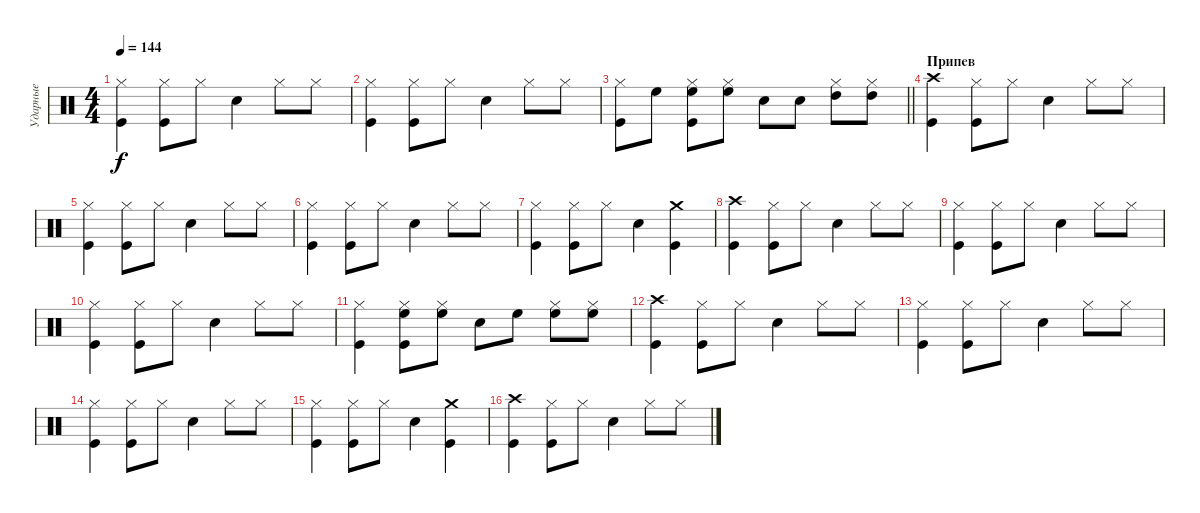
\track ("Ударные" "Ударные") {instrument percussion}
\staff {score}
\articulation defaults
\ts (4 4)
\tempo 144
\clef neutral
\ks c
("Hi-Hat (closed)" "Kick (hit)").4{dy f} ("Hi-Hat (closed)" "Kick (hit)").8 "Hi-Hat (closed)".8 "Snare (hit) 2".4 "Hi-Hat (closed)".8 "Hi-Hat (closed)".8 |
("Hi-Hat (closed)" "Kick (hit)").4 ("Hi-Hat (closed)" "Kick (hit)").8 "Hi-Hat (closed)".8 "Snare (hit) 2".4 "Hi-Hat (closed)".8 "Hi-Hat (closed)".8 |
\barLineRight lightlight
("Hi-Hat (closed)" "Kick (hit)").8 "High Floor Tom (hit)".8 ("Hi-Hat (closed)" "High Floor Tom (hit)" "Kick (hit)").8 ("Hi-Hat (closed)" "High Floor Tom (hit)").8 "Snare (hit) 2".8 "Snare (hit) 2".8 ("Hi-Hat (closed)" "High Tom (hit)").8 ("Hi-Hat (closed)" "High Tom (hit)").8 |
\section ("" "Припев")
("Crash high (hit)" "Kick (hit)").4 ("Hi-Hat (closed)" "Kick (hit)").8 "Hi-Hat (closed)".8 "Snare (hit) 2".4 "Hi-Hat (closed)".8 "Hi-Hat (closed)".8 |
("Hi-Hat (closed)" "Kick (hit)").4 ("Hi-Hat (closed)" "Kick (hit)").8 "Hi-Hat (closed)".8 "Snare (hit) 2".4 "Hi-Hat (closed)".8 "Hi-Hat (closed)".8 |
("Hi-Hat (closed)" "Kick (hit)").4 ("Hi-Hat (closed)" "Kick (hit)").8 "Hi-Hat (closed)".8 "Snare (hit) 2".4 "Hi-Hat (closed)".8 "Hi-Hat (closed)".8 |
("Hi-Hat (closed)" "Kick (hit)").4 ("Hi-Hat (closed)" "Kick (hit)").8 "Hi-Hat (closed)".8 "Snare (hit) 2".4 ("Crash medium (hit)" "Kick (hit)").4 |
("Crash high (hit)" "Kick (hit)").4 ("Hi-Hat (closed)" "Kick (hit)").8 "Hi-Hat (closed)".8 "Snare (hit) 2".4 "Hi-Hat (closed)".8 "Hi-Hat (closed)".8 |
("Hi-Hat (closed)" "Kick (hit)").4 ("Hi-Hat (closed)" "Kick (hit)").8 "Hi-Hat (closed)".8 "Snare (hit) 2".4 "Hi-Hat (closed)".8 "Hi-Hat (closed)".8 |
("Hi-Hat (closed)" "Kick (hit)").4 ("Hi-Hat (closed)" "Kick (hit)").8 "Hi-Hat (closed)".8 "Snare (hit) 2".4 "Hi-Hat (closed)".8 "Hi-Hat (closed)".8 |
("Hi-Hat (closed)" "Kick (hit)").4 ("Hi-Hat (closed)" "High Floor Tom (hit)" "Kick (hit)").8 ("Hi-Hat (closed)" "High Floor Tom (hit)").8 "Snare (hit) 2".8 "High Floor Tom (hit)".8 ("Hi-Hat (closed)" "High Floor Tom (hit)").8 ("Hi-Hat (closed)" "High Floor Tom (hit)").8 |
("Crash high (hit)" "Kick (hit)").4 ("Hi-Hat (closed)" "Kick (hit)").8 "Hi-Hat (closed)".8 "Snare (hit) 2".4 "Hi-Hat (closed)".8 "Hi-Hat (closed)".8 |
("Hi-Hat (closed)" "Kick (hit)").4 ("Hi-Hat (closed)" "Kick (hit)").8 "Hi-Hat (closed)".8 "Snare (hit) 2".4 "Hi-Hat (closed)".8 "Hi-Hat (closed)".8 |
("Hi-Hat (closed)" "Kick (hit)").4 ("Hi-Hat (closed)" "Kick (hit)").8 "Hi-Hat (closed)".8 "Snare (hit) 2".4 "Hi-Hat (closed)".8 "Hi-Hat (closed)".8 |
("Hi-Hat (closed)" "Kick (hit)").4 ("Hi-Hat (closed)" "Kick (hit)").8 "Hi-Hat (closed)".8 "Snare (hit) 2".4 ("Crash medium (hit)" "Kick (hit)").4 |
("Crash high (hit)" "Kick (hit)").4 ("Hi-Hat (closed)" "Kick (hit)").8 "Hi-Hat (closed)".8 "Snare (hit) 2".4 "Hi-Hat (closed)".8 "Hi-Hat (closed)".8
